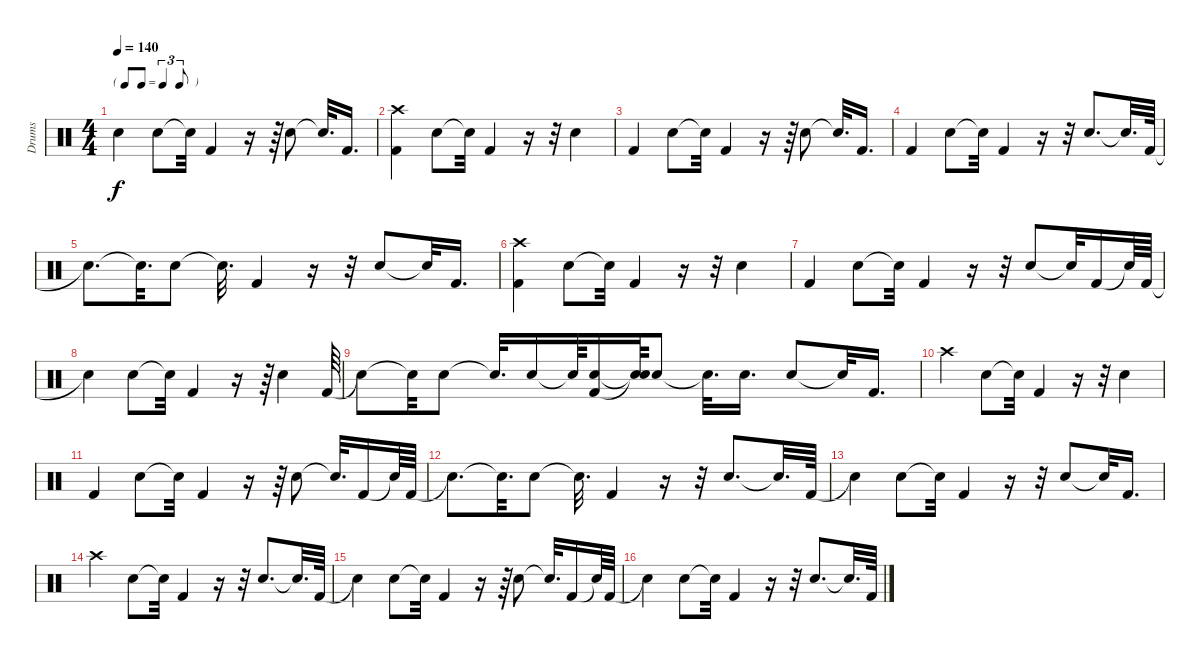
\track ("Drums" "Drums") {instrument percussion}
\staff {score}
\articulation defaults
\ts (4 4)
\tf triplet8th
\tempo 140
\clef neutral
\ks c "Snare (hit)"{t}.4{dy f} "Snare (hit) 2".8 "Snare (hit)"{t}.32 "Kick (hit) 2".4
r.16 r.64 "Snare (hit) 2".8 "Snare (hit)"{t}.32{d} "Kick (hit) 2".16{d} |
("Kick (hit) 2" "Crash high (hit)").4 "Snare (hit) 2".8 "Snare (hit)"{t}.32 "Kick (hit) 2".4 r.16 r.32 "Snare (hit) 2".4 |
"Kick (hit) 2".4 "Snare (hit) 2".8 "Snare (hit)"{t}.32 "Kick (hit) 2".4 r.16 r.64 "Snare (hit) 2".8 "Snare (hit)"{t}.32{d} "Kick (hit) 2".16{d} |
"Kick (hit) 2".4 "Snare (hit) 2".8 "Snare (hit)"{t}.32 "Kick (hit) 2".4 r.16 r.32 "Snare (hit) 2".8{d} "Snare (hit)"{t}.32{d} "Kick (hit) 2".64 |
"Snare (hit)"{t}.8{d} "Snare (hit)"{t}.32{d} "Snare (hit) 2".8 "Snare (hit)"{t}.32{d} "Kick (hit) 2".4 r.16 r.32 "Snare (hit) 2".8 "Snare (hit)"{t}.32 "Kick (hit) 2".16{d} |
("Kick (hit) 2" "Crash high (hit)").4 "Snare (hit) 2".8 "Snare (hit)"{t}.32 "Kick (hit) 2".4 r.16 r.32 "Snare (hit) 2".4 |
"Kick (hit) 2".4 "Snare (hit) 2".8 "Snare (hit)"{t}.32 "Kick (hit) 2".4 r.16 r.32 "Snare (hit) 2".8 "Snare (hit)"{t}.32 "Kick (hit) 2".16 "Snare (hit)"{t}.64 "Kick (hit) 2".64 |
"Snare (hit)"{t}.4 "Snare (hit) 2".8 "Snare (hit)"{t}.32 "Kick (hit) 2".4 r.16 r.64 "Snare (hit) 2".4 "Kick (hit) 2".64 |
"Snare (hit)"{t}.8 "Snare (hit)"{t}.32 "Snare (hit) 2".8 "Snare (hit)"{t}.32{d} "Snare (hit) 2".16 "Snare (hit)"{t}.64 ("Kick (hit) 2" "Snare (hit) 2").16 ("Snare (hit)"{t} "Snare (hit)"{t}).64 "Snare (hit) 2".8 "Snare (hit)"{t}.32{d} "Snare (hit) 2".16{d} "Snare (hit) 2".8 "Snare (hit)"{t}.32 "Kick (hit) 2".16{d} |
"Crash high (hit)".4 "Snare (hit) 2".8 "Snare (hit)"{t}.32 "Kick (hit) 2".4 r.16 r.32 "Snare (hit) 2".4 |
"Kick (hit) 2".4 "Snare (hit) 2".8 "Snare (hit)"{t}.32 "Kick (hit) 2".4 r.16 r.64 "Snare (hit) 2".8 "Snare (hit)"{t}.32{d} "Kick (hit) 2".16 "Snare (hit)"{t}.64 "Kick (hit) 2".64 |
"Snare (hit)"{t}.8{d} "Snare (hit)"{t}.32{d} "Snare (hit) 2".8 "Snare (hit)"{t}.32{d} "Kick (hit) 2".4 r.16 r.32 "Snare (hit) 2".8{d} "Snare (hit)"{t}.32{d} "Kick (hit) 2".64 |
"Snare (hit)"{t}.4 "Snare (hit) 2".8 "Snare (hit)"{t}.32 "Kick (hit) 2".4 r.16 r.32 "Snare (hit) 2".8 "Snare (hit)"{t}.32 "Kick (hit) 2".16{d} |
"Crash high (hit)".4 "Snare (hit) 2".8 "Snare (hit)"{t}.32 "Kick (hit) 2".4 r.16 r.32 "Snare (hit) 2".8{d} "Snare (hit)"{t}.32{d} "Kick (hit) 2".64 |
"Snare (hit)"{t}.4 "Snare (hit) 2".8 "Snare (hit)"{t}.32 "Kick (hit) 2".4 r.16 r.64 "Snare (hit) 2".8 "Snare (hit)"{t}.32{d} "Kick (hit) 2".16 "Snare (hit)"{t}.64 "Kick (hit) 2".64 |
"Snare (hit)"{t}.4 "Snare (hit) 2".8 "Snare (hit)"{t}.32 "Kick (hit) 2".4 r.16 r.32 "Snare (hit) 2".8{d} "Snare (hit)"{t}.32{d} "Kick (hit) 2".64
